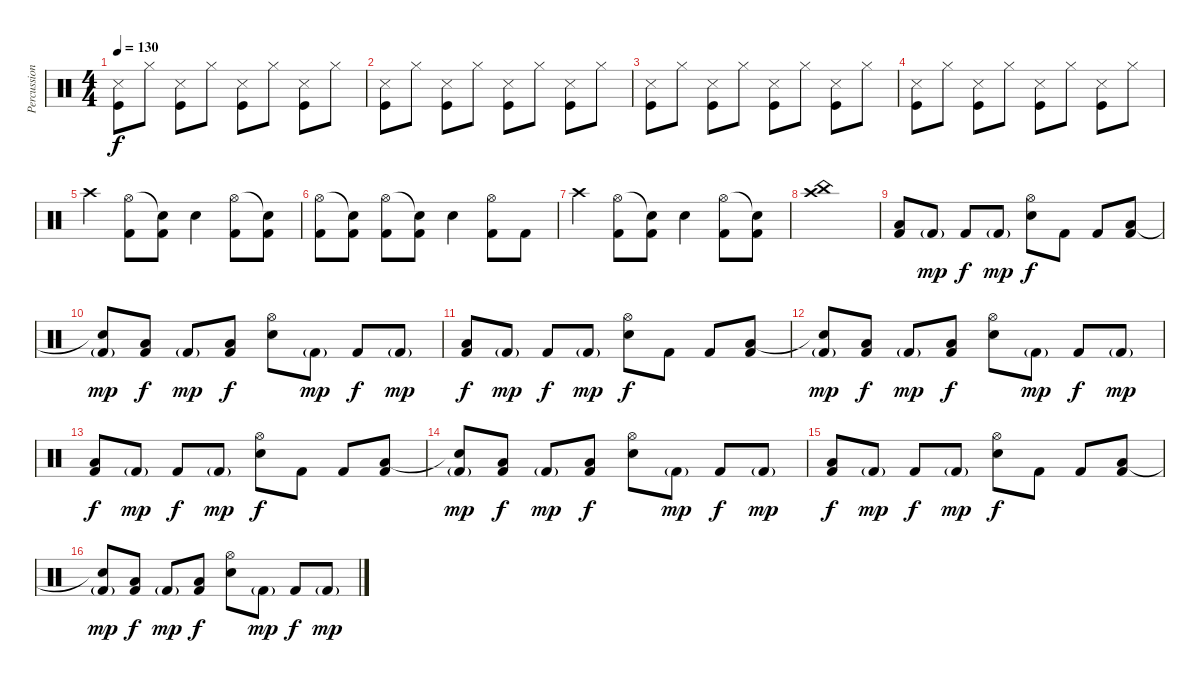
\track ("Percussions" "Percussion") {instrument percussion}
\staff {score}
\articulation defaults
\ts (4 4)
\tempo 130
\clef neutral
\ks c
("Snare (side stick) 3" "Kick (hit)").8{dy f} "Hi-Hat (closed)".8 ("Snare (side stick) 3" "Kick (hit)").8 "Hi-Hat (closed)".8 ("Snare (side stick) 3" "Kick (hit)").8 "Hi-Hat (closed)".8 ("Snare (side stick) 3" "Kick (hit)").8 "Hi-Hat (closed)".8 |
("Snare (side stick) 3" "Kick (hit)").8 "Hi-Hat (closed)".8 ("Snare (side stick) 3" "Kick (hit)").8 "Hi-Hat (closed)".8 ("Snare (side stick) 3" "Kick (hit)").8 "Hi-Hat (closed)".8 ("Snare (side stick) 3" "Kick (hit)").8 "Hi-Hat (closed)".8 |
("Snare (side stick) 3" "Kick (hit)").8 "Hi-Hat (closed)".8 ("Snare (side stick) 3" "Kick (hit)").8 "Hi-Hat (closed)".8 ("Snare (side stick) 3" "Kick (hit)").8 "Hi-Hat (closed)".8 ("Snare (side stick) 3" "Kick (hit)").8 "Hi-Hat (closed)".8 |
("Snare (side stick) 3" "Kick (hit)").8 "Hi-Hat (closed)".8 ("Snare (side stick) 3" "Kick (hit)").8 "Hi-Hat (closed)".8 ("Snare (side stick) 3" "Kick (hit)").8 "Hi-Hat (closed)".8 ("Snare (side stick) 3" "Kick (hit)").8 "Hi-Hat (closed)".8 |
"Crash high (hit)".4 ("Hi-Hat (open)" "Kick (hit) 2").8 ("Snare (hit)"{t} "Kick (hit) 2").8 "Electric Snare (hit)".4 ("Hi-Hat (open)" "Kick (hit) 2").8 ("Snare (hit)"{t} "Kick (hit) 2").8 |
("Hi-Hat (open)" "Kick (hit) 2").8 ("Snare (hit)"{t} "Kick (hit) 2").8 ("Hi-Hat (open)" "Kick (hit) 2").8 ("Snare (hit)"{t} "Kick (hit) 2").8 "Electric Snare (hit)".4 ("Hi-Hat (open)" "Kick (hit) 2").8 "Kick (hit) 2".8 |
"Crash high (hit)".4 ("Hi-Hat (open)" "Kick (hit) 2").8 ("Snare (hit)"{t} "Kick (hit) 2").8 "Electric Snare (hit)".4 ("Hi-Hat (open)" "Kick (hit) 2").8 ("Snare (hit)"{t} "Kick (hit) 2").8 |
("Crash high (hit)" "China (hit)").1 |
("Low Floor Tom (hit)" "Kick (hit) 2").8 "Kick (hit) 2"{g}.8{dy mp} "Kick (hit) 2".8{dy f} "Kick (hit) 2"{g}.8{dy mp} ("Hi-Hat (open)" "Electric Snare (hit)").8{dy f} "Kick (hit) 2".8 "Kick (hit) 2".8 ("Low Tom (hit)" "Kick (hit) 2").8 |
("Snare (hit)"{t} "Kick (hit) 2"{g}).8{dy mp} ("Low Floor Tom (hit)" "Kick (hit) 2").8{dy f} "Kick (hit) 2"{g}.8{dy mp} ("Low Floor Tom (hit)" "Kick (hit) 2").8{dy f} ("Hi-Hat (open)" "Electric Snare (hit)").8 "Kick (hit) 2"{g}.8{dy mp} "Kick (hit) 2".8{dy f} "Kick (hit) 2"{g}.8{dy mp} |
("Low Floor Tom (hit)" "Kick (hit) 2").8{dy f} "Kick (hit) 2"{g}.8{dy mp} "Kick (hit) 2".8{dy f} "Kick (hit) 2"{g}.8{dy mp} ("Hi-Hat (open)" "Electric Snare (hit)").8{dy f} "Kick (hit) 2".8 "Kick (hit) 2".8 ("Low Tom (hit)" "Kick (hit) 2").8 |
("Snare (hit)"{t} "Kick (hit) 2"{g}).8{dy mp} ("Low Floor Tom (hit)" "Kick (hit) 2").8{dy f} "Kick (hit) 2"{g}.8{dy mp} ("Low Floor Tom (hit)" "Kick (hit) 2").8{dy f} ("Hi-Hat (open)" "Electric Snare (hit)").8 "Kick (hit) 2"{g}.8{dy mp} "Kick (hit) 2".8{dy f} "Kick (hit) 2"{g}.8{dy mp} |
("Low Floor Tom (hit)" "Kick (hit) 2").8{dy f} "Kick (hit) 2"{g}.8{dy mp} "Kick (hit) 2".8{dy f} "Kick (hit) 2"{g}.8{dy mp} ("Hi-Hat (open)" "Electric Snare (hit)").8{dy f} "Kick (hit) 2".8 "Kick (hit) 2".8 ("Low Tom (hit)" "Kick (hit) 2").8 |
("Snare (hit)"{t} "Kick (hit) 2"{g}).8{dy mp} ("Low Floor Tom (hit)" "Kick (hit) 2").8{dy f} "Kick (hit) 2"{g}.8{dy mp} ("Low Floor Tom (hit)" "Kick (hit) 2").8{dy f} ("Hi-Hat (open)" "Electric Snare (hit)").8 "Kick (hit) 2"{g}.8{dy mp} "Kick (hit) 2".8{dy f} "Kick (hit) 2"{g}.8{dy mp} |
("Low Floor Tom (hit)" "Kick (hit) 2").8{dy f} "Kick (hit) 2"{g}.8{dy mp} "Kick (hit) 2".8{dy f} "Kick (hit) 2"{g}.8{dy mp} ("Hi-Hat (open)" "Electric Snare (hit)").8{dy f} "Kick (hit) 2".8 "Kick (hit) 2".8 ("Low Tom (hit)" "Kick (hit) 2").8 |
("Snare (hit)"{t} "Kick (hit) 2"{g}).8{dy mp} ("Low Floor Tom (hit)" "Kick (hit) 2").8{dy f} "Kick (hit) 2"{g}.8{dy mp} ("Low Floor Tom (hit)" "Kick (hit) 2").8{dy f} ("Hi-Hat (open)" "Electric Snare (hit)").8 "Kick (hit) 2"{g}.8{dy mp} "Kick (hit) 2".8{dy f} "Kick (hit) 2"{g}.8{dy mp}
